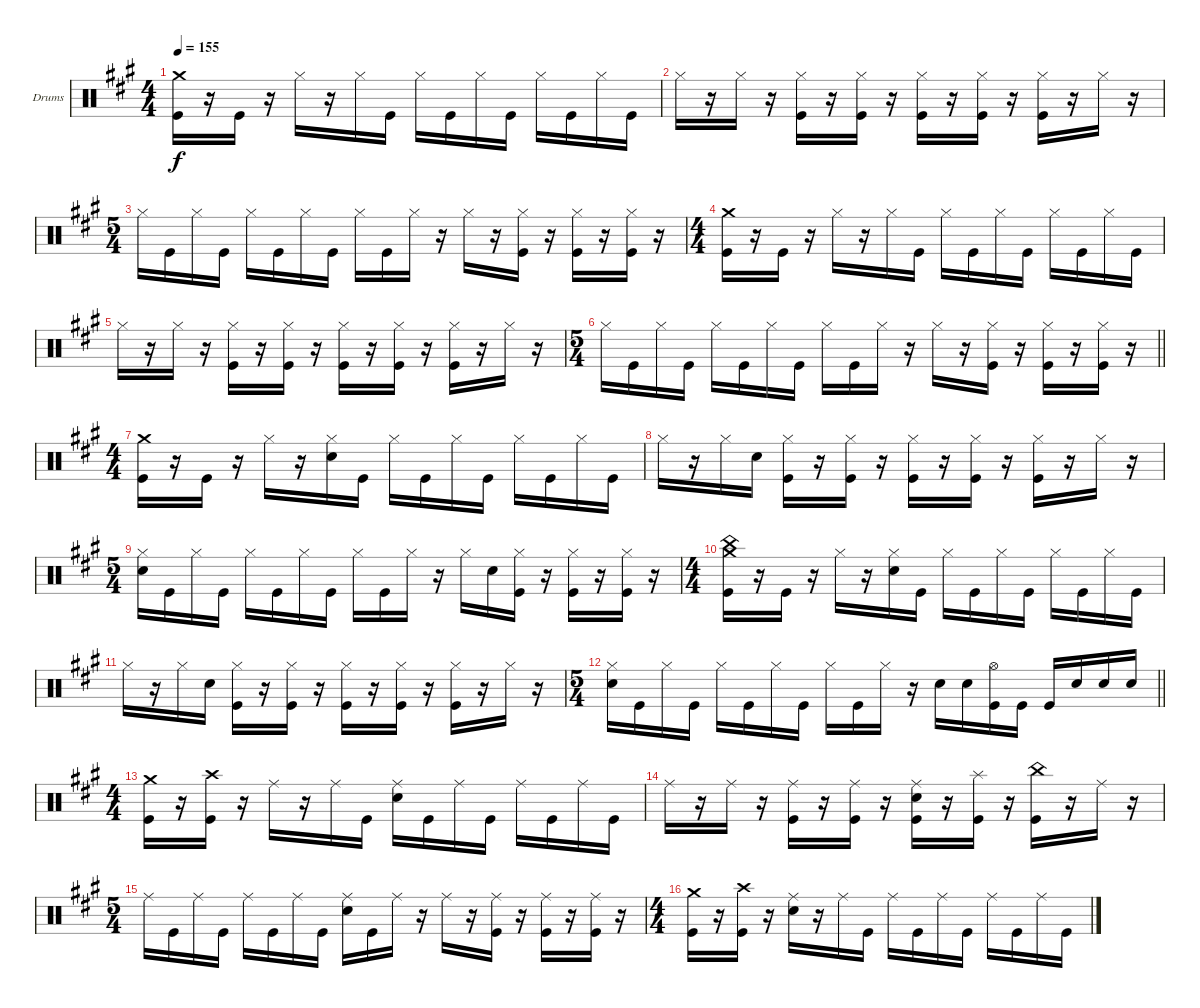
\bracketExtendMode groupsimilarinstruments
\firstSystemTrackNameOrientation horizontal
\otherSystemsTrackNameOrientation horizontal
\track ("Drumkit" "Drums") {instrument percussion}
\staff {score}
\articulation defaults
\ts (4 4)
\beaming (8 2 2 2 2 2)
\tempo 155
\clef neutral
\ks a
("Crash medium (hit)" "Kick (hit)").16{dy f} r.16 "Kick (hit)".16 r.16 "Hi-Hat (closed)".16 r.16 "Hi-Hat (closed)".16 "Kick (hit)".16 "Hi-Hat (closed)".16 "Kick (hit)".16 "Hi-Hat (closed)".16 "Kick (hit)".16 "Hi-Hat (closed)".16 "Kick (hit)".16 "Hi-Hat (closed)".16 "Kick (hit)".16 |
"Hi-Hat (closed)".16 r.16 "Hi-Hat (closed)".16 r.16 ("Hi-Hat (closed)" "Kick (hit)").16 r.16 ("Hi-Hat (closed)" "Kick (hit)").16 r.16 ("Hi-Hat (closed)" "Kick (hit)").16 r.16 ("Hi-Hat (closed)" "Kick (hit)").16 r.16 ("Hi-Hat (closed)" "Kick (hit)").16 r.16 "Hi-Hat (closed)".16 r.16 |
\ts (5 4)
\beaming (8 2 2 2 2 2)
"Hi-Hat (closed)".16 "Kick (hit)".16 "Hi-Hat (closed)".16 "Kick (hit)".16 "Hi-Hat (closed)".16 "Kick (hit)".16 "Hi-Hat (closed)".16 "Kick (hit)".16 "Hi-Hat (closed)".16 "Kick (hit)".16 "Hi-Hat (closed)".16 r.16 "Hi-Hat (closed)".16 r.16 ("Hi-Hat (closed)" "Kick (hit)").16 r.16 ("Hi-Hat (closed)" "Kick (hit)").16 r.16 ("Hi-Hat (closed)" "Kick (hit)").16 r.16 |
\ts (4 4)
\beaming (8 2 2 2 2 2)
("Crash medium (hit)" "Kick (hit)").16 r.16 "Kick (hit)".16 r.16 "Hi-Hat (closed)".16 r.16 "Hi-Hat (closed)".16 "Kick (hit)".16 "Hi-Hat (closed)".16 "Kick (hit)".16 "Hi-Hat (closed)".16 "Kick (hit)".16 "Hi-Hat (closed)".16 "Kick (hit)".16 "Hi-Hat (closed)".16 "Kick (hit)".16 |
"Hi-Hat (closed)".16 r.16 "Hi-Hat (closed)".16 r.16 ("Hi-Hat (closed)" "Kick (hit)").16 r.16 ("Hi-Hat (closed)" "Kick (hit)").16 r.16 ("Hi-Hat (closed)" "Kick (hit)").16 r.16 ("Hi-Hat (closed)" "Kick (hit)").16 r.16 ("Hi-Hat (closed)" "Kick (hit)").16 r.16 "Hi-Hat (closed)".16 r.16 |
\ts (5 4)
\beaming (8 2 2 2 2 2)
\barLineRight lightlight "Hi-Hat (closed)".16 "Kick (hit)".16 "Hi-Hat (closed)".16 "Kick (hit)".16 "Hi-Hat (closed)".16 "Kick (hit)".16 "Hi-Hat (closed)".16 "Kick (hit)".16 "Hi-Hat (closed)".16 "Kick (hit)".16 "Hi-Hat (closed)".16
r.16 "Hi-Hat (closed)".16 r.16 ("Hi-Hat (closed)" "Kick (hit)").16 r.16 ("Hi-Hat (closed)" "Kick (hit)").16 r.16 ("Hi-Hat (closed)" "Kick (hit)").16 r.16 |
\ts (4 4)
\beaming (8 2 2 2 2 2)
("Crash medium (hit)" "Kick (hit)").16 r.16 "Kick (hit)".16 r.16 "Hi-Hat (closed)".16 r.16 ("Hi-Hat (closed)" "Snare (hit) 2").16 "Kick (hit)".16 "Hi-Hat (closed)".16 "Kick (hit)".16 "Hi-Hat (closed)".16 "Kick (hit)".16 "Hi-Hat (closed)".16 "Kick (hit)".16 "Hi-Hat (closed)".16 "Kick (hit)".16 |
"Hi-Hat (closed)".16 r.16 "Hi-Hat (closed)".16 "Snare (hit) 2".16 ("Hi-Hat (closed)" "Kick (hit)").16 r.16 ("Hi-Hat (closed)" "Kick (hit)").16 r.16 ("Hi-Hat (closed)" "Kick (hit)").16 r.16 ("Hi-Hat (closed)" "Kick (hit)").16 r.16 ("Hi-Hat (closed)" "Kick (hit)").16 r.16 "Hi-Hat (closed)".16 r.16 |
\ts (5 4)
\beaming (8 2 2 2 2 2)
("Hi-Hat (closed)" "Snare (hit) 2").16 "Kick (hit)".16 "Hi-Hat (closed)".16 "Kick (hit)".16 "Hi-Hat (closed)".16 "Kick (hit)".16 "Hi-Hat (closed)".16 "Kick (hit)".16 "Hi-Hat (closed)".16 "Kick (hit)".16 "Hi-Hat (closed)".16 r.16 "Hi-Hat (closed)".16 "Snare (hit) 2".16 ("Hi-Hat (closed)" "Kick (hit)").16 r.16 ("Hi-Hat (closed)" "Kick (hit)").16 r.16 ("Hi-Hat (closed)" "Kick (hit)").16 r.16 |
\ts (4 4)
\beaming (8 2 2 2 2 2)
("Crash medium (hit)" "China (hit)" "Kick (hit)").16 r.16 "Kick (hit)".16 r.16 "Hi-Hat (closed)".16 r.16 ("Hi-Hat (closed)" "Snare (hit) 2").16 "Kick (hit)".16 "Hi-Hat (closed)".16 "Kick (hit)".16 "Hi-Hat (closed)".16 "Kick (hit)".16 "Hi-Hat (closed)".16 "Kick (hit)".16 "Hi-Hat (closed)".16 "Kick (hit)".16 |
"Hi-Hat (closed)".16 r.16 "Hi-Hat (closed)".16 "Snare (hit) 2".16 ("Hi-Hat (closed)" "Kick (hit)").16 r.16 ("Hi-Hat (closed)" "Kick (hit)").16 r.16 ("Hi-Hat (closed)" "Kick (hit)").16 r.16 ("Hi-Hat (closed)" "Kick (hit)").16 r.16 ("Hi-Hat (closed)" "Kick (hit)").16 r.16 "Hi-Hat (closed)".16 r.16 |
\ts (5 4)
\beaming (8 2 2 2 2 2)
\barLineRight lightlight
("Hi-Hat (closed)" "Snare (hit) 2").16 "Kick (hit)".16 "Hi-Hat (closed)".16 "Kick (hit)".16 "Hi-Hat (closed)".16 "Kick (hit)".16 "Hi-Hat (closed)".16 "Kick (hit)".16 "Hi-Hat (closed)".16 "Kick (hit)".16 "Hi-Hat (closed)".16 r.16 "Snare (hit) 2".16 "Snare (hit) 2".16 ("Hi-Hat (open)" "Kick (hit)").16 "Kick (hit)".16 "Kick (hit)".16 "Snare (hit) 2".16 "Snare (hit) 2".16 "Snare (hit) 2".16 |
\ts (4 4)
\beaming (8 2 2 2 2 2)
("Crash medium (hit)" "Kick (hit)").16 r.16 ("Crash high (hit)" "Kick (hit)").16 r.16 "Ride (middle)".16 r.16 "Ride (middle)".16 "Kick (hit)".16 ("Ride (middle)" "Snare (hit) 2").16 "Kick (hit)".16 "Ride (middle)".16 "Kick (hit)".16 "Ride (middle)".16 "Kick (hit)".16 "Ride (middle)".16 "Kick (hit)".16 |
"Ride (middle)".16 r.16 "Ride (middle)".16 r.16 ("Ride (middle)" "Kick (hit)").16 r.16 ("Ride (middle)" "Kick (hit)").16 r.16 ("Ride (middle)" "Snare (hit) 2" "Kick (hit)").16 r.16 ("Splash (hit)" "Kick (hit)").16 r.16 ("China (hit)" "Kick (hit)").16 r.16 "Ride (middle)".16 r.16 |
\ts (5 4)
\beaming (8 2 2 2 2 2)
"Ride (middle)".16 "Kick (hit)".16 "Ride (middle)".16 "Kick (hit)".16 "Ride (middle)".16 "Kick (hit)".16 "Ride (middle)".16 "Kick (hit)".16 ("Ride (middle)" "Snare (hit) 2").16 "Kick (hit)".16 "Ride (middle)".16 r.16 "Ride (middle)".16 r.16 ("Ride (middle)" "Kick (hit)").16 r.16 ("Ride (middle)" "Kick (hit)").16 r.16 ("Ride (middle)" "Kick (hit)").16 r.16 |
\ts (4 4)
\beaming (8 2 2 2 2 2)
("Crash medium (hit)" "Kick (hit)").16 r.16 ("Crash high (hit)" "Kick (hit)").16 r.16 ("Ride (middle)" "Snare (hit) 2").16 r.16 "Ride (middle)".16 "Kick (hit)".16 "Ride (middle)".16 "Kick (hit)".16 "Ride (middle)".16 "Kick (hit)".16 "Ride (middle)".16 "Kick (hit)".16 "Ride (middle)".16 "Kick (hit)".16
